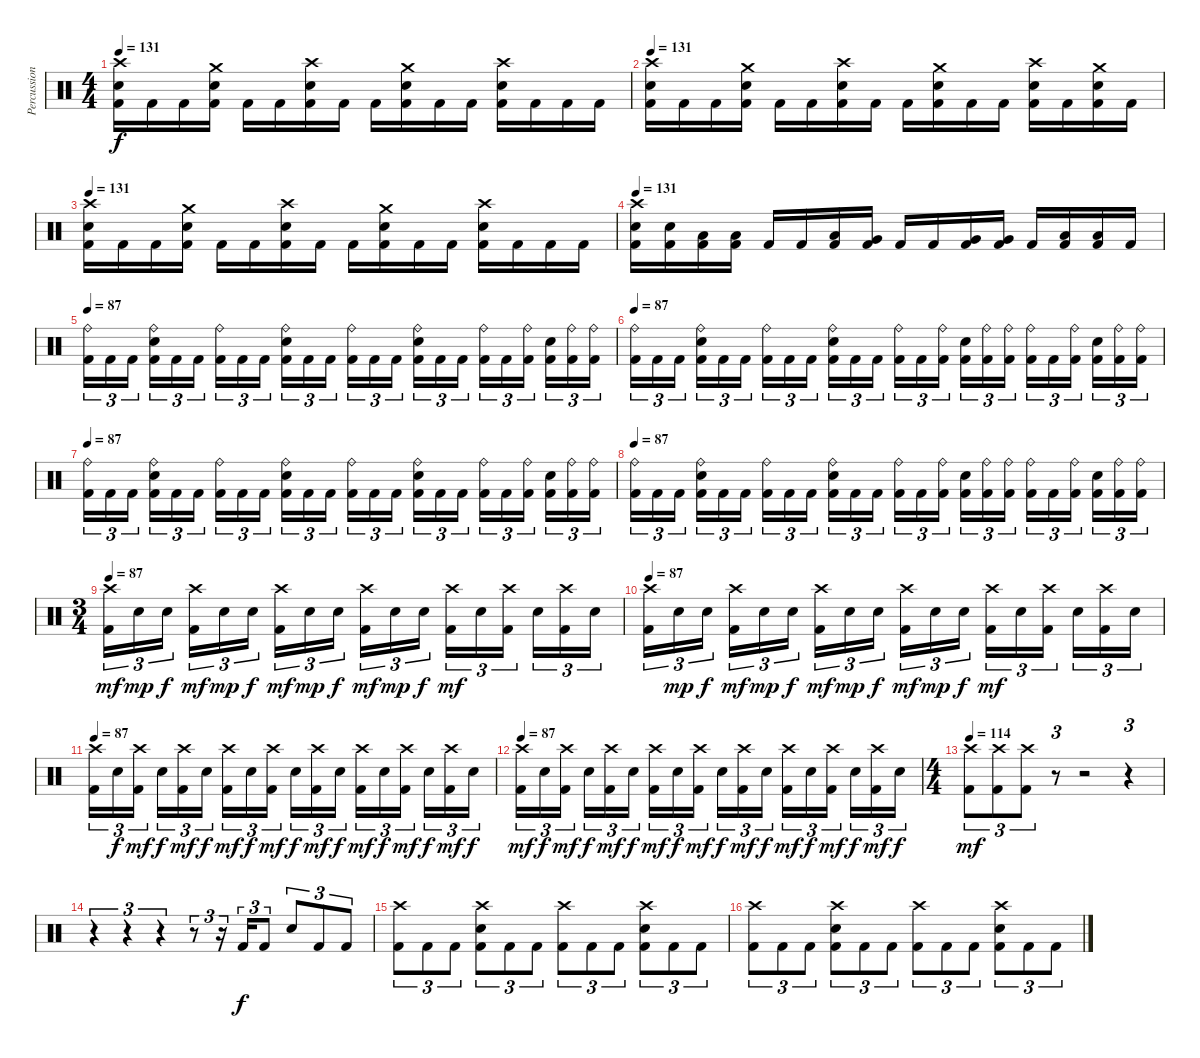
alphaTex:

\track ("Percussion" "Percussion") {instrument percussion}
\staff {score}
\articulation defaults
\ts (4 4)
\tempo 131
\clef neutral
\ks c
("Crash high (hit)" "Electric Snare (hit)" "Kick (hit) 2").16{dy f volume 13} "Kick (hit) 2".16 "Kick (hit) 2".16 ("Crash medium (hit)" "Electric Snare (hit)" "Kick (hit) 2").16 "Kick (hit) 2".16 "Kick (hit) 2".16 ("Crash high (hit)" "Electric Snare (hit)" "Kick (hit) 2").16 "Kick (hit) 2".16 "Kick (hit) 2".16 ("Crash medium (hit)" "Electric Snare (hit)" "Kick (hit) 2").16 "Kick (hit) 2".16 "Kick (hit) 2".16 ("Crash high (hit)" "Electric Snare (hit)" "Kick (hit) 2").16 "Kick (hit) 2".16 "Kick (hit) 2".16 "Kick (hit) 2".16 |
\tempo 131
("Crash high (hit)" "Electric Snare (hit)" "Kick (hit) 2").16{volume 13} "Kick (hit) 2".16 "Kick (hit) 2".16 ("Crash medium (hit)" "Electric Snare (hit)" "Kick (hit) 2").16 "Kick (hit) 2".16 "Kick (hit) 2".16 ("Crash high (hit)" "Electric Snare (hit)" "Kick (hit) 2").16 "Kick (hit) 2".16 "Kick (hit) 2".16 ("Crash medium (hit)" "Electric Snare (hit)" "Kick (hit) 2").16 "Kick (hit) 2".16 "Kick (hit) 2".16 ("Crash high (hit)" "Electric Snare (hit)" "Kick (hit) 2").16 "Kick (hit) 2".16 ("Crash medium (hit)" "Electric Snare (hit)" "Kick (hit) 2").16 "Kick (hit) 2".16 |
\tempo 131
("Crash high (hit)" "Electric Snare (hit)" "Kick (hit) 2").16{volume 13} "Kick (hit) 2".16 "Kick (hit) 2".16 ("Crash medium (hit)" "Electric Snare (hit)" "Kick (hit) 2").16 "Kick (hit) 2".16 "Kick (hit) 2".16 ("Crash high (hit)" "Electric Snare (hit)" "Kick (hit) 2").16 "Kick (hit) 2".16 "Kick (hit) 2".16 ("Crash medium (hit)" "Electric Snare (hit)" "Kick (hit) 2").16 "Kick (hit) 2".16 "Kick (hit) 2".16 ("Crash high (hit)" "Electric Snare (hit)" "Kick (hit) 2").16 "Kick (hit) 2".16 "Kick (hit) 2".16 "Kick (hit) 2".16 |
\tempo 131
("Crash high (hit)" "Electric Snare (hit)" "Kick (hit) 2").16{volume 13} ("Electric Snare (hit)" "Kick (hit) 2").16 ("Low Tom (hit)" "Kick (hit) 2").16 ("Low Tom (hit)" "Kick (hit) 2").16 "Kick (hit) 2".16 "Kick (hit) 2".16 ("Low Tom (hit)" "Kick (hit) 2").16 ("Very Low Tom (hit)" "Kick (hit) 2").16 "Kick (hit) 2".16 "Kick (hit) 2".16 ("Very Low Tom (hit)" "Kick (hit) 2").16 ("Very Low Tom (hit)" "Kick (hit) 2").16 "Kick (hit) 2".16 ("Low Floor Tom (hit)" "Kick (hit) 2").16 ("Low Floor Tom (hit)" "Kick (hit) 2").16 "Kick (hit) 2".16 |
\tempo 87
("Ride (bell)" "Kick (hit) 2").16{tu (3 2)} "Kick (hit) 2".16{tu (3 2)} "Kick (hit) 2".16{tu (3 2)} ("Ride (bell)" "Electric Snare (hit)" "Kick (hit) 2").16{tu (3 2)} "Kick (hit) 2".16{tu (3 2)} "Kick (hit) 2".16{tu (3 2)} ("Ride (bell)" "Kick (hit) 2").16{tu (3 2)} "Kick (hit) 2".16{tu (3 2)} "Kick (hit) 2".16{tu (3 2)} ("Ride (bell)" "Electric Snare (hit)" "Kick (hit) 2").16{tu (3 2)} "Kick (hit) 2".16{tu (3 2)} "Kick (hit) 2".16{tu (3 2)} ("Ride (bell)" "Kick (hit) 2").16{tu (3 2)} "Kick (hit) 2".16{tu (3 2)} "Kick (hit) 2".16{tu (3 2)} ("Ride (bell)" "Electric Snare (hit)" "Kick (hit) 2").16{tu (3 2)} "Kick (hit) 2".16{tu (3 2)} "Kick (hit) 2".16{tu (3 2)} ("Ride (bell)" "Kick (hit) 2").16{tu (3 2)} "Kick (hit) 2".16{tu (3 2)} ("Ride (bell)" "Kick (hit) 2").16{tu (3 2)} ("Electric Snare (hit)" "Kick (hit) 2").16{tu (3 2)} ("Ride (bell)" "Kick (hit) 2").16{tu (3 2)} ("Ride (bell)" "Kick (hit) 2").16{tu (3 2)} |
\tempo 87
("Ride (bell)" "Kick (hit) 2").16{tu (3 2)} "Kick (hit) 2".16{tu (3 2)} "Kick (hit) 2".16{tu (3 2)} ("Ride (bell)" "Electric Snare (hit)" "Kick (hit) 2").16{tu (3 2)} "Kick (hit) 2".16{tu (3 2)} "Kick (hit) 2".16{tu (3 2)} ("Ride (bell)" "Kick (hit) 2").16{tu (3 2)} "Kick (hit) 2".16{tu (3 2)} "Kick (hit) 2".16{tu (3 2)} ("Ride (bell)" "Electric Snare (hit)" "Kick (hit) 2").16{tu (3 2)} "Kick (hit) 2".16{tu (3 2)} "Kick (hit) 2".16{tu (3 2)} ("Ride (bell)" "Kick (hit) 2").16{tu (3 2)} "Kick (hit) 2".16{tu (3 2)} ("Ride (bell)" "Kick (hit) 2").16{tu (3 2)} ("Electric Snare (hit)" "Kick (hit) 2").16{tu (3 2)} ("Ride (bell)" "Kick (hit) 2").16{tu (3 2)} ("Ride (bell)" "Kick (hit) 2").16{tu (3 2)} ("Ride (bell)" "Kick (hit) 2").16{tu (3 2)} "Kick (hit) 2".16{tu (3 2)} ("Ride (bell)" "Kick (hit) 2").16{tu (3 2)} ("Electric Snare (hit)" "Kick (hit) 2").16{tu (3 2)} ("Ride (bell)" "Kick (hit) 2").16{tu (3 2)} ("Ride (bell)" "Kick (hit) 2").16{tu (3 2)} |
\tempo 87
("Ride (bell)" "Kick (hit) 2").16{tu (3 2)} "Kick (hit) 2".16{tu (3 2)} "Kick (hit) 2".16{tu (3 2)} ("Ride (bell)" "Electric Snare (hit)" "Kick (hit) 2").16{tu (3 2)} "Kick (hit) 2".16{tu (3 2)} "Kick (hit) 2".16{tu (3 2)} ("Ride (bell)" "Kick (hit) 2").16{tu (3 2)} "Kick (hit) 2".16{tu (3 2)} "Kick (hit) 2".16{tu (3 2)} ("Ride (bell)" "Electric Snare (hit)" "Kick (hit) 2").16{tu (3 2)} "Kick (hit) 2".16{tu (3 2)} "Kick (hit) 2".16{tu (3 2)} ("Ride (bell)" "Kick (hit) 2").16{tu (3 2)} "Kick (hit) 2".16{tu (3 2)} "Kick (hit) 2".16{tu (3 2)} ("Ride (bell)" "Electric Snare (hit)" "Kick (hit) 2").16{tu (3 2)} "Kick (hit) 2".16{tu (3 2)} "Kick (hit) 2".16{tu (3 2)} ("Ride (bell)" "Kick (hit) 2").16{tu (3 2)} "Kick (hit) 2".16{tu (3 2)} ("Ride (bell)" "Kick (hit) 2").16{tu (3 2)} ("Electric Snare (hit)" "Kick (hit) 2").16{tu (3 2)} ("Ride (bell)" "Kick (hit) 2").16{tu (3 2)} ("Ride (bell)" "Kick (hit) 2").16{tu (3 2)} |
\tempo 87
("Ride (bell)" "Kick (hit) 2").16{tu (3 2)} "Kick (hit) 2".16{tu (3 2)} "Kick (hit) 2".16{tu (3 2)} ("Ride (bell)" "Electric Snare (hit)" "Kick (hit) 2").16{tu (3 2)} "Kick (hit) 2".16{tu (3 2)} "Kick (hit) 2".16{tu (3 2)} ("Ride (bell)" "Kick (hit) 2").16{tu (3 2)} "Kick (hit) 2".16{tu (3 2)} "Kick (hit) 2".16{tu (3 2)} ("Ride (bell)" "Electric Snare (hit)" "Kick (hit) 2").16{tu (3 2)} "Kick (hit) 2".16{tu (3 2)} "Kick (hit) 2".16{tu (3 2)} ("Ride (bell)" "Kick (hit) 2").16{tu (3 2)} "Kick (hit) 2".16{tu (3 2)} ("Ride (bell)" "Kick (hit) 2").16{tu (3 2)} ("Electric Snare (hit)" "Kick (hit) 2").16{tu (3 2)} ("Ride (bell)" "Kick (hit) 2").16{tu (3 2)} ("Ride (bell)" "Kick (hit) 2").16{tu (3 2)} ("Ride (bell)" "Kick (hit) 2").16{tu (3 2)} "Kick (hit) 2".16{tu (3 2)} ("Ride (bell)" "Kick (hit) 2").16{tu (3 2)} ("Electric Snare (hit)" "Kick (hit) 2").16{tu (3 2)} ("Ride (bell)" "Kick (hit) 2").16{tu (3 2)} ("Ride (bell)" "Kick (hit) 2").16{tu (3 2)} |
\ts (3 4)
\tempo 87
("Crash high (hit)" "Kick (hit) 2").16{tu (3 2) dy mf} "Electric Snare (hit)".16{tu (3 2) dy mp} "Electric Snare (hit)".16{tu (3 2) dy f} ("Crash high (hit)" "Kick (hit) 2").16{tu (3 2) dy mf} "Electric Snare (hit)".16{tu (3 2) dy mp} "Electric Snare (hit)".16{tu (3 2) dy f} ("Crash high (hit)" "Kick (hit) 2").16{tu (3 2) dy mf} "Electric Snare (hit)".16{tu (3 2) dy mp} "Electric Snare (hit)".16{tu (3 2) dy f} ("Crash high (hit)" "Kick (hit) 2").16{tu (3 2) dy mf} "Electric Snare (hit)".16{tu (3 2) dy mp} "Electric Snare (hit)".16{tu (3 2) dy f} ("Crash high (hit)" "Kick (hit) 2").16{tu (3 2) dy mf} "Electric Snare (hit)".16{tu (3 2)} ("Crash high (hit)" "Kick (hit) 2").16{tu (3 2)} "Electric Snare (hit)".16{tu (3 2)} ("Crash high (hit)" "Kick (hit) 2").16{tu (3 2)} "Electric Snare (hit)".16{tu (3 2)} |
\tempo 87
("Crash high (hit)" "Kick (hit) 2").16{tu (3 2)} "Electric Snare (hit)".16{tu (3 2) dy mp} "Electric Snare (hit)".16{tu (3 2) dy f} ("Crash high (hit)" "Kick (hit) 2").16{tu (3 2) dy mf} "Electric Snare (hit)".16{tu (3 2) dy mp} "Electric Snare (hit)".16{tu (3 2) dy f} ("Crash high (hit)" "Kick (hit) 2").16{tu (3 2) dy mf} "Electric Snare (hit)".16{tu (3 2) dy mp} "Electric Snare (hit)".16{tu (3 2) dy f} ("Crash high (hit)" "Kick (hit) 2").16{tu (3 2) dy mf} "Electric Snare (hit)".16{tu (3 2) dy mp} "Electric Snare (hit)".16{tu (3 2) dy f} ("Crash high (hit)" "Kick (hit) 2").16{tu (3 2) dy mf} "Electric Snare (hit)".16{tu (3 2)} ("Crash high (hit)" "Kick (hit) 2").16{tu (3 2)} "Electric Snare (hit)".16{tu (3 2)} ("Crash high (hit)" "Kick (hit) 2").16{tu (3 2)} "Electric Snare (hit)".16{tu (3 2)} |
\tempo 87
("Crash high (hit)" "Kick (hit) 2").16{tu (3 2)} "Electric Snare (hit)".16{tu (3 2) dy f} ("Crash high (hit)" "Kick (hit) 2").16{tu (3 2) dy mf} "Electric Snare (hit)".16{tu (3 2) dy f} ("Crash high (hit)" "Kick (hit) 2").16{tu (3 2) dy mf} "Electric Snare (hit)".16{tu (3 2) dy f} ("Crash high (hit)" "Kick (hit) 2").16{tu (3 2) dy mf} "Electric Snare (hit)".16{tu (3 2) dy f} ("Crash high (hit)" "Kick (hit) 2").16{tu (3 2) dy mf} "Electric Snare (hit)".16{tu (3 2) dy f} ("Crash high (hit)" "Kick (hit) 2").16{tu (3 2) dy mf} "Electric Snare (hit)".16{tu (3 2) dy f} ("Crash high (hit)" "Kick (hit) 2").16{tu (3 2) dy mf} "Electric Snare (hit)".16{tu (3 2) dy f} ("Crash high (hit)" "Kick (hit) 2").16{tu (3 2) dy mf} "Electric Snare (hit)".16{tu (3 2) dy f} ("Crash high (hit)" "Kick (hit) 2").16{tu (3 2) dy mf} "Electric Snare (hit)".16{tu (3 2) dy f} |
\tempo 87
("Crash high (hit)" "Kick (hit) 2").16{tu (3 2) dy mf} "Electric Snare (hit)".16{tu (3 2) dy f} ("Crash high (hit)" "Kick (hit) 2").16{tu (3 2) dy mf} "Electric Snare (hit)".16{tu (3 2) dy f} ("Crash high (hit)" "Kick (hit) 2").16{tu (3 2) dy mf} "Electric Snare (hit)".16{tu (3 2) dy f} ("Crash high (hit)" "Kick (hit) 2").16{tu (3 2) dy mf} "Electric Snare (hit)".16{tu (3 2) dy f} ("Crash high (hit)" "Kick (hit) 2").16{tu (3 2) dy mf} "Electric Snare (hit)".16{tu (3 2) dy f} ("Crash high (hit)" "Kick (hit) 2").16{tu (3 2) dy mf} "Electric Snare (hit)".16{tu (3 2) dy f} ("Crash high (hit)" "Kick (hit) 2").16{tu (3 2) dy mf} "Electric Snare (hit)".16{tu (3 2) dy f} ("Crash high (hit)" "Kick (hit) 2").16{tu (3 2) dy mf} "Electric Snare (hit)".16{tu (3 2) dy f} ("Crash high (hit)" "Kick (hit) 2").16{tu (3 2) dy mf} "Electric Snare (hit)".16{tu (3 2) dy f} |
\ts (4 4)
\tempo 114
("Crash high (hit)" "Kick (hit) 2").8{tu (3 2) dy mf} ("Crash high (hit)" "Kick (hit) 2").8{tu (3 2)} ("Crash high (hit)" "Kick (hit) 2").8{tu (3 2)} r.8{tu (3 2) volume 0} r.2 r.4{tu (3 2)} |
r.4{tu (3 2) volume 13} r.4{tu (3 2)} r.4{tu (3 2)} r.8{tu (3 2)} r.16{tu (3 2)} "Kick (hit) 2".16{tu (3 2) dy f} "Kick (hit) 2".8{tu (3 2)} "Electric Snare (hit)".8{tu (3 2)} "Kick (hit) 2".8{tu (3 2)} "Kick (hit) 2".8{tu (3 2)} |
("Crash high (hit)" "Kick (hit) 2").8{tu (3 2)} "Kick (hit) 2".8{tu (3 2)} "Kick (hit) 2".8{tu (3 2)} ("Crash high (hit)" "Electric Snare (hit)" "Kick (hit) 2").8{tu (3 2)} "Kick (hit) 2".8{tu (3 2)} "Kick (hit) 2".8{tu (3 2)} ("Crash high (hit)" "Kick (hit) 2").8{tu (3 2)} "Kick (hit) 2".8{tu (3 2)} "Kick (hit) 2".8{tu (3 2)} ("Crash high (hit)" "Electric Snare (hit)" "Kick (hit) 2").8{tu (3 2)} "Kick (hit) 2".8{tu (3 2)} "Kick (hit) 2".8{tu (3 2)} |
("Crash high (hit)" "Kick (hit) 2").8{tu (3 2)} "Kick (hit) 2".8{tu (3 2)} "Kick (hit) 2".8{tu (3 2)} ("Crash high (hit)" "Electric Snare (hit)" "Kick (hit) 2").8{tu (3 2)} "Kick (hit) 2".8{tu (3 2)} "Kick (hit) 2".8{tu (3 2)} ("Crash high (hit)" "Kick (hit) 2").8{tu (3 2)} "Kick (hit) 2".8{tu (3 2)} "Kick (hit) 2".8{tu (3 2)} ("Crash high (hit)" "Electric Snare (hit)" "Kick (hit) 2").8{tu (3 2)} "Kick (hit) 2".8{tu (3 2)} "Kick (hit) 2".8{tu (3 2)}
